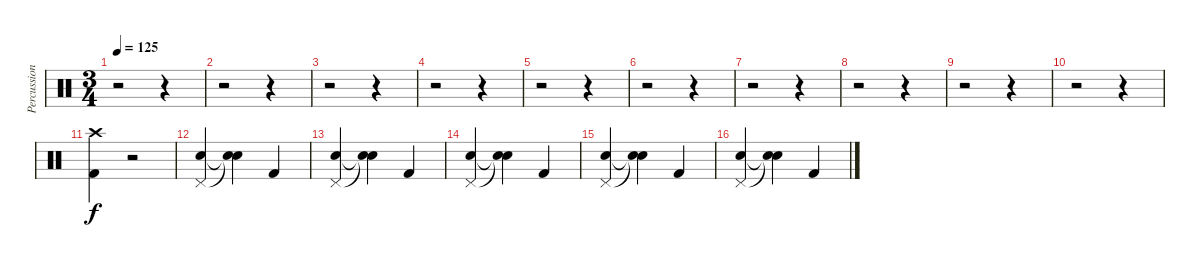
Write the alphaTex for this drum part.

\track ("Percussion" "Percussion") {instrument percussion}
\staff {score}
\articulation defaults
\ts (3 4)
\tempo 125
\clef neutral
\ks c
r.2{dy f} r.4 |
r.2 r.4 |
r.2 r.4 |
r.2 r.4 |
r.2 r.4 |
r.2 r.4 |
r.2 r.4 |
r.2 r.4 |
r.2 r.4 |
r.2 r.4 |
("Crash high (hit)" "Kick (hit) 2").4 r.2 |
("Pedal Hi-Hat (hit)" "Snare (hit) 2").4 ("Snare (hit)"{t} "Snare (hit)"{t}).4 "Kick (hit) 2".4 |
("Pedal Hi-Hat (hit)" "Snare (hit) 2").4 ("Snare (hit)"{t} "Snare (hit)"{t}).4 "Kick (hit) 2".4 |
("Pedal Hi-Hat (hit)" "Snare (hit) 2").4 ("Snare (hit)"{t} "Snare (hit)"{t}).4 "Kick (hit) 2".4 |
("Pedal Hi-Hat (hit)" "Snare (hit) 2").4 ("Snare (hit)"{t} "Snare (hit)"{t}).4 "Kick (hit) 2".4 |
("Pedal Hi-Hat (hit)" "Snare (hit) 2").4 ("Snare (hit)"{t} "Snare (hit)"{t}).4 "Kick (hit) 2".4
